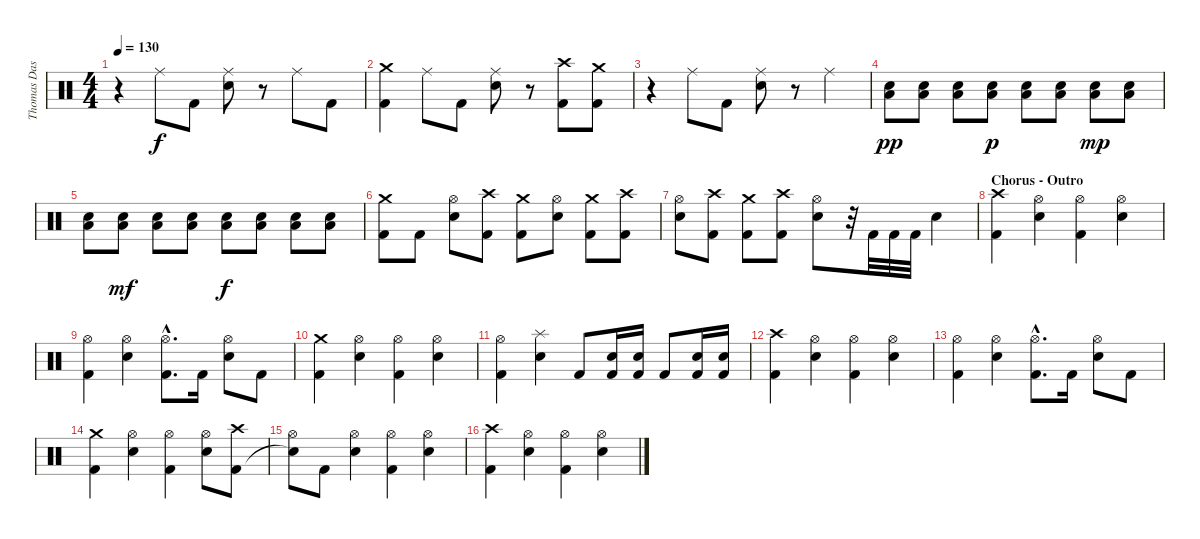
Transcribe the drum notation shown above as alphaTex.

\track ("Thomas Das Neves (Drums)" "Thomas Das") {instrument percussion}
\staff {score}
\articulation defaults
\ts (4 4)
\tempo 130
\clef neutral
\ks c
r.4{dy f} "Ride (middle)".8 "Kick (hit) 2".8 ("Ride (middle)" "Snare (hit) 2").8 r.8 "Ride (middle)".8 "Kick (hit) 2".8 |
("Crash medium (hit)" "Kick (hit) 2").4 "Ride (middle)".8 "Kick (hit) 2".8 ("Ride (middle)" "Snare (hit) 2").8 r.8 ("Crash high (hit)" "Kick (hit) 2").8 ("Crash medium (hit)" "Kick (hit) 2").8 |
r.4 "Ride (middle)".8 "Kick (hit) 2".8 ("Ride (middle)" "Snare (hit) 2").8 r.8 "Ride (middle)".4 |
("Low Floor Tom (hit)" "Snare (hit) 2").8{dy pp} ("Low Floor Tom (hit)" "Snare (hit) 2").8 ("Low Floor Tom (hit)" "Snare (hit) 2").8 ("Low Floor Tom (hit)" "Snare (hit) 2").8{dy p} ("Low Floor Tom (hit)" "Snare (hit) 2").8 ("Low Floor Tom (hit)" "Snare (hit) 2").8 ("Low Floor Tom (hit)" "Snare (hit) 2").8{dy mp} ("Low Floor Tom (hit)" "Snare (hit) 2").8 |
("Low Floor Tom (hit)" "Snare (hit) 2").8 ("Low Floor Tom (hit)" "Snare (hit) 2").8{dy mf} ("Low Floor Tom (hit)" "Snare (hit) 2").8 ("Low Floor Tom (hit)" "Snare (hit) 2").8 ("Low Floor Tom (hit)" "Snare (hit) 2").8{dy f} ("Low Floor Tom (hit)" "Snare (hit) 2").8 ("Low Floor Tom (hit)" "Snare (hit) 2").8 ("Low Floor Tom (hit)" "Snare (hit) 2").8 |
("Crash medium (hit)" "Kick (hit) 2").8 "Kick (hit) 2".8 ("Hi-Hat (open)" "Snare (hit) 2").8 ("Crash high (hit)" "Kick (hit) 2").8 ("Crash medium (hit)" "Kick (hit) 2").8 ("Hi-Hat (open)" "Snare (hit) 2").8 ("Crash medium (hit)" "Kick (hit) 2").8 ("Crash high (hit)" "Kick (hit) 2").8 |
("Hi-Hat (open)" "Snare (hit) 2").8 ("Crash high (hit)" "Kick (hit) 2").8 ("Crash medium (hit)" "Kick (hit) 2").8 ("Crash high (hit)" "Kick (hit) 2").8 ("Hi-Hat (open)" "Snare (hit) 2").8 r.32 "Kick (hit) 2".32 "Kick (hit) 2".32 "Kick (hit) 2".32 "Snare (hit) 2".4 |
\section ("" "Chorus - Outro")
("Crash high (hit)" "Kick (hit) 2").4 ("Hi-Hat (open)" "Snare (hit) 2").4 ("Hi-Hat (open)" "Kick (hit) 2").4 ("Hi-Hat (open)" "Snare (hit) 2").4 |
("Hi-Hat (open)" "Kick (hit) 2").4 ("Hi-Hat (open)" "Snare (hit) 2").4 ("Hi-Hat (open)"{hac} "Kick (hit) 2"{hac}).8{d} "Kick (hit) 2".16 ("Hi-Hat (open)" "Snare (hit) 2").8 "Kick (hit) 2".8 |
("Crash medium (hit)" "Kick (hit) 2").4 ("Hi-Hat (open)" "Snare (hit) 2").4 ("Hi-Hat (open)" "Kick (hit) 2").4 ("Hi-Hat (open)" "Snare (hit) 2").4 |
("Hi-Hat (open)" "Kick (hit) 2").4 ("Splash (hit)" "Snare (hit) 2").4 "Kick (hit) 2".8 ("Snare (hit) 2" "Kick (hit) 2").16 ("Snare (hit) 2" "Kick (hit) 2").16 "Kick (hit) 2".8 ("Snare (hit) 2" "Kick (hit) 2").16 ("Snare (hit) 2" "Kick (hit) 2").16 |
("Crash high (hit)" "Kick (hit) 2").4 ("Hi-Hat (open)" "Snare (hit) 2").4 ("Hi-Hat (open)" "Kick (hit) 2").4 ("Hi-Hat (open)" "Snare (hit) 2").4 |
("Hi-Hat (open)" "Kick (hit) 2").4 ("Hi-Hat (open)" "Snare (hit) 2").4 ("Hi-Hat (open)"{hac} "Kick (hit) 2"{hac}).8{d} "Kick (hit) 2".16 ("Hi-Hat (open)" "Snare (hit) 2").8 "Kick (hit) 2".8 |
("Crash medium (hit)" "Kick (hit) 2").4 ("Hi-Hat (open)" "Snare (hit) 2").4 ("Hi-Hat (open)" "Kick (hit) 2").4 ("Hi-Hat (open)" "Snare (hit) 2").8 ("Crash high (hit)" "Kick (hit) 2").8 |
("Hi-Hat (open)" "Snare (hit)"{t}).8 "Kick (hit) 2".8 ("Hi-Hat (open)" "Snare (hit) 2").4 ("Hi-Hat (open)" "Kick (hit) 2").4 ("Hi-Hat (open)" "Snare (hit) 2").4 |
("Crash high (hit)" "Kick (hit) 2").4 ("Hi-Hat (open)" "Snare (hit) 2").4 ("Hi-Hat (open)" "Kick (hit) 2").4 ("Hi-Hat (open)" "Snare (hit) 2").4
